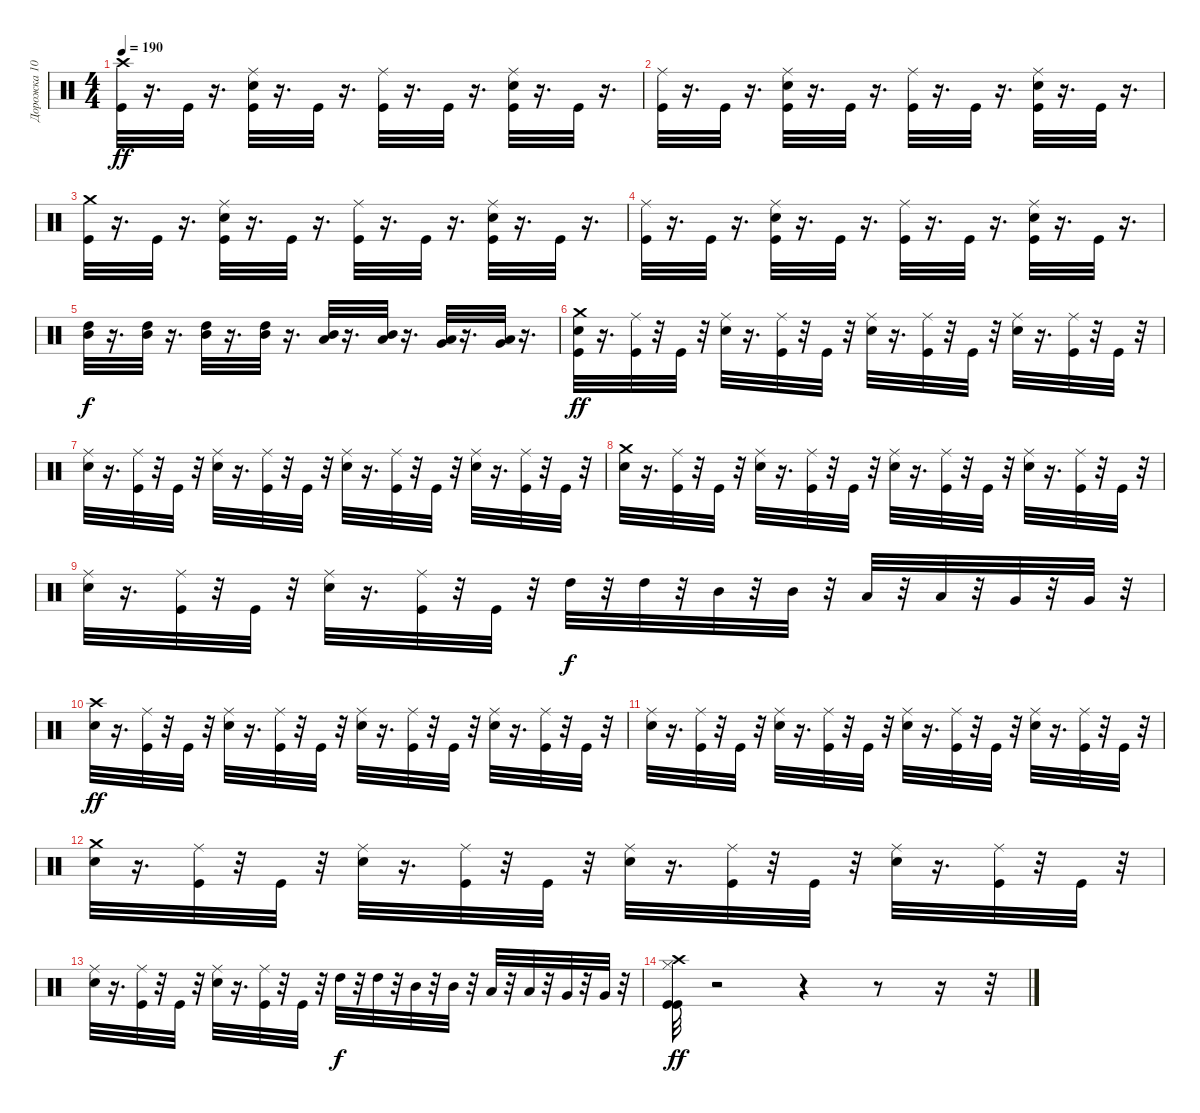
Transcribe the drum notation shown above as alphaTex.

\track ("Дорожка 10" "Дорожка 10") {instrument percussion}
\staff {score}
\articulation defaults
\ts (4 4)
\tempo 190
\clef neutral
\ks c
("Crash high (hit)" "Kick (hit)").32{dy ff} r.16{d} "Kick (hit)".32 r.16{d} ("Kick (hit)" "Snare (hit) 2" "Ride (middle)").32 r.16{d} "Kick (hit)".32 r.16{d} ("Ride (middle)" "Kick (hit)").32 r.16{d} "Kick (hit)".32 r.16{d} ("Ride (middle)" "Kick (hit)" "Snare (hit) 2").32 r.16{d} "Kick (hit)".32 r.16{d} |
("Ride (middle)" "Kick (hit)").32 r.16{d} "Kick (hit)".32 r.16{d} ("Ride (middle)" "Kick (hit)" "Snare (hit) 2").32 r.16{d} "Kick (hit)".32 r.16{d} ("Ride (middle)" "Kick (hit)").32 r.16{d} "Kick (hit)".32 r.16{d} ("Ride (middle)" "Kick (hit)" "Snare (hit) 2").32 r.16{d} "Kick (hit)".32 r.16{d} |
("Kick (hit)" "Crash medium (hit)").32 r.16{d} "Kick (hit)".32 r.16{d} ("Snare (hit) 2" "Kick (hit)" "Ride (middle)").32 r.16{d} "Kick (hit)".32 r.16{d} ("Kick (hit)" "Ride (middle)").32 r.16{d} "Kick (hit)".32 r.16{d} ("Snare (hit) 2" "Kick (hit)" "Ride (middle)").32 r.16{d} "Kick (hit)".32 r.16{d} |
("Kick (hit)" "Ride (middle)").32 r.16{d} "Kick (hit)".32 r.16{d} ("Snare (hit) 2" "Kick (hit)" "Ride (middle)").32 r.16{d} "Kick (hit)".32 r.16{d} ("Kick (hit)" "Ride (middle)").32 r.16{d} "Kick (hit)".32 r.16{d} ("Snare (hit) 2" "Kick (hit)" "Ride (middle)").32 r.16{d} "Kick (hit)".32 r.16{d} |
("High Tom (hit)" "Mid Tom (hit)").32{dy f} r.16{d} ("Mid Tom (hit)" "High Tom (hit)").32 r.16{d} ("Mid Tom (hit)" "High Tom (hit)").32 r.16{d} ("Mid Tom (hit)" "High Tom (hit)").32 r.16{d} ("Low Tom (hit)" "Mid Tom (hit)").32 r.16{d} ("Low Tom (hit)" "Mid Tom (hit)").32 r.16{d} ("Very Low Tom (hit)" "Low Tom (hit)").32 r.16{d} ("Very Low Tom (hit)" "Low Tom (hit)").32 r.16{d} |
("Snare (hit) 2" "Crash medium (hit)" "Kick (hit)").32{dy ff} r.16{d} ("Ride (middle)" "Kick (hit)").32 r.32 "Kick (hit)".32 r.32 ("Ride (middle)" "Snare (hit) 2").32 r.16{d} ("Ride (middle)" "Kick (hit)").32 r.32 "Kick (hit)".32 r.32 ("Ride (middle)" "Snare (hit) 2").32 r.16{d} ("Kick (hit)" "Ride (middle)").32 r.32 "Kick (hit)".32 r.32 ("Ride (middle)" "Snare (hit) 2").32 r.16{d} ("Ride (middle)" "Kick (hit)").32 r.32 "Kick (hit)".32 r.32 |
("Snare (hit) 2" "Ride (middle)").32 r.16{d} ("Ride (middle)" "Kick (hit)").32 r.32 "Kick (hit)".32 r.32 ("Ride (middle)" "Snare (hit) 2").32 r.16{d} ("Ride (middle)" "Kick (hit)").32 r.32 "Kick (hit)".32 r.32 ("Ride (middle)" "Snare (hit) 2").32 r.16{d} ("Ride (middle)" "Kick (hit)").32 r.32 "Kick (hit)".32 r.32 ("Ride (middle)" "Snare (hit) 2").32 r.16{d} ("Ride (middle)" "Kick (hit)").32 r.32 "Kick (hit)".32 r.32 |
("Crash medium (hit)" "Snare (hit) 2").32 r.16{d} ("Ride (middle)" "Kick (hit)").32 r.32 "Kick (hit)".32 r.32 ("Ride (middle)" "Snare (hit) 2").32 r.16{d} ("Ride (middle)" "Kick (hit)").32 r.32 "Kick (hit)".32 r.32 ("Ride (middle)" "Snare (hit) 2").32 r.16{d} ("Ride (middle)" "Kick (hit)").32 r.32 "Kick (hit)".32 r.32 ("Ride (middle)" "Snare (hit) 2").32 r.16{d} ("Ride (middle)" "Kick (hit)").32 r.32 "Kick (hit)".32 r.32 |
("Ride (middle)" "Snare (hit) 2").32 r.16{d} ("Ride (middle)" "Kick (hit)").32 r.32 "Kick (hit)".32 r.32 ("Ride (middle)" "Snare (hit) 2").32 r.16{d} ("Ride (middle)" "Kick (hit)").32 r.32 "Kick (hit)".32 r.32 "High Tom (hit)".32{dy f} r.32 "High Tom (hit)".32 r.32 "Mid Tom (hit)".32 r.32 "Mid Tom (hit)".32 r.32 "Low Tom (hit)".32 r.32 "Low Tom (hit)".32 r.32 "Very Low Tom (hit)".32 r.32 "Very Low Tom (hit)".32 r.32 |
("Snare (hit) 2" "Crash high (hit)").32{dy ff} r.16{d} ("Ride (middle)" "Kick (hit)").32 r.32 "Kick (hit)".32 r.32 ("Ride (middle)" "Snare (hit) 2").32 r.16{d} ("Ride (middle)" "Kick (hit)").32 r.32 "Kick (hit)".32 r.32 ("Ride (middle)" "Snare (hit) 2").32 r.16{d} ("Kick (hit)" "Ride (middle)").32 r.32 "Kick (hit)".32 r.32 ("Ride (middle)" "Snare (hit) 2").32 r.16{d} ("Ride (middle)" "Kick (hit)").32 r.32 "Kick (hit)".32 r.32 |
("Snare (hit) 2" "Ride (middle)").32 r.16{d} ("Ride (middle)" "Kick (hit)").32 r.32 "Kick (hit)".32 r.32 ("Ride (middle)" "Snare (hit) 2").32 r.16{d} ("Ride (middle)" "Kick (hit)").32 r.32 "Kick (hit)".32 r.32 ("Ride (middle)" "Snare (hit) 2").32 r.16{d} ("Ride (middle)" "Kick (hit)").32 r.32 "Kick (hit)".32 r.32 ("Ride (middle)" "Snare (hit) 2").32 r.16{d} ("Ride (middle)" "Kick (hit)").32 r.32 "Kick (hit)".32 r.32 |
("Crash medium (hit)" "Snare (hit) 2").32 r.16{d} ("Ride (middle)" "Kick (hit)").32 r.32 "Kick (hit)".32 r.32 ("Ride (middle)" "Snare (hit) 2").32 r.16{d} ("Ride (middle)" "Kick (hit)").32 r.32 "Kick (hit)".32 r.32 ("Ride (middle)" "Snare (hit) 2").32 r.16{d} ("Ride (middle)" "Kick (hit)").32 r.32 "Kick (hit)".32 r.32 ("Ride (middle)" "Snare (hit) 2").32 r.16{d} ("Ride (middle)" "Kick (hit)").32 r.32 "Kick (hit)".32 r.32 |
("Ride (middle)" "Snare (hit) 2").32 r.16{d} ("Ride (middle)" "Kick (hit)").32 r.32 "Kick (hit)".32 r.32 ("Ride (middle)" "Snare (hit) 2").32 r.16{d} ("Ride (middle)" "Kick (hit)").32 r.32 "Kick (hit)".32 r.32 "High Tom (hit)".32{dy f} r.32 "High Tom (hit)".32 r.32 "Mid Tom (hit)".32 r.32 "Mid Tom (hit)".32 r.32 "Low Tom (hit)".32 r.32 "Low Tom (hit)".32 r.32 "Very Low Tom (hit)".32 r.32 "Very Low Tom (hit)".32 r.32 |
("Crash high (hit)" "Kick (hit)" "Hi-Hat (closed)" "Kick (hit)").32{dy ff} r.2 r.4 r.8 r.16 r.32
